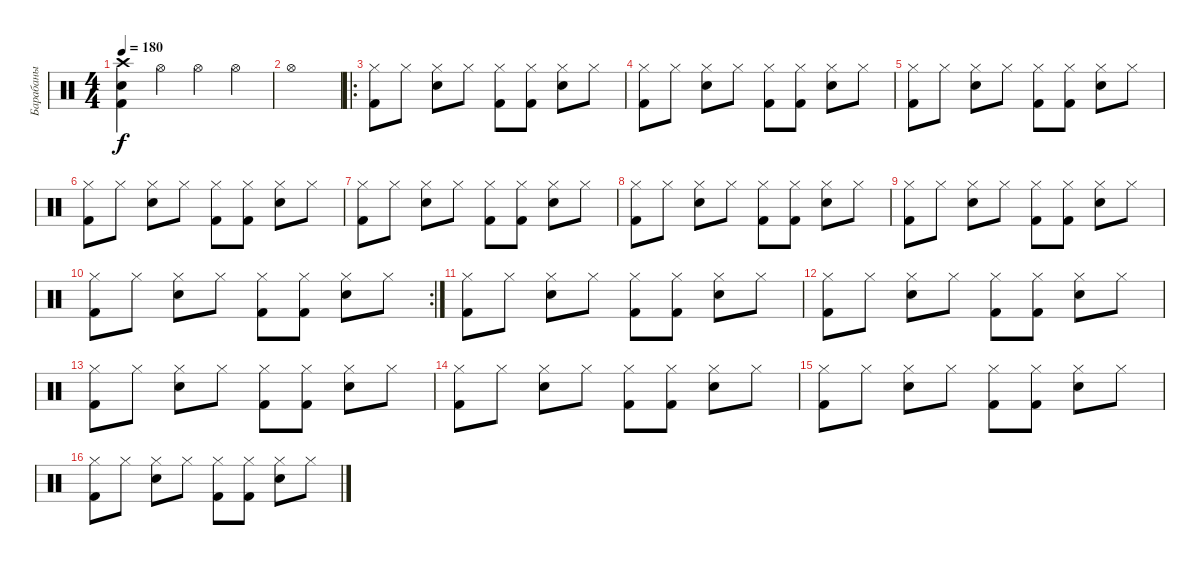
\track ("Барабаны" "Барабаны") {instrument percussion}
\staff {score}
\articulation defaults
\ts (4 4)
\tempo 180
\clef neutral
\ks c
("Crash high (hit)" "Kick (hit) 2" "Electric Snare (hit)").4{dy f} "Hi-Hat (open)".4 "Hi-Hat (open)".4 "Hi-Hat (open)".4 |
"Hi-Hat (open)".1 |
\ro
("Hi-Hat (closed)" "Kick (hit) 2").8 "Hi-Hat (closed)".8 ("Hi-Hat (closed)" "Electric Snare (hit)").8 "Hi-Hat (closed)".8 ("Hi-Hat (closed)" "Kick (hit) 2").8 ("Hi-Hat (closed)" "Kick (hit) 2").8 ("Hi-Hat (closed)" "Electric Snare (hit)").8 "Hi-Hat (closed)".8 |
("Hi-Hat (closed)" "Kick (hit) 2").8 "Hi-Hat (closed)".8 ("Hi-Hat (closed)" "Electric Snare (hit)").8 "Hi-Hat (closed)".8 ("Hi-Hat (closed)" "Kick (hit) 2").8 ("Hi-Hat (closed)" "Kick (hit) 2").8 ("Hi-Hat (closed)" "Electric Snare (hit)").8 "Hi-Hat (closed)".8 |
("Hi-Hat (closed)" "Kick (hit) 2").8 "Hi-Hat (closed)".8 ("Hi-Hat (closed)" "Electric Snare (hit)").8 "Hi-Hat (closed)".8 ("Hi-Hat (closed)" "Kick (hit) 2").8 ("Hi-Hat (closed)" "Kick (hit) 2").8 ("Hi-Hat (closed)" "Electric Snare (hit)").8 "Hi-Hat (closed)".8 |
("Hi-Hat (closed)" "Kick (hit) 2").8 "Hi-Hat (closed)".8 ("Hi-Hat (closed)" "Electric Snare (hit)").8 "Hi-Hat (closed)".8 ("Hi-Hat (closed)" "Kick (hit) 2").8 ("Hi-Hat (closed)" "Kick (hit) 2").8 ("Hi-Hat (closed)" "Electric Snare (hit)").8 "Hi-Hat (closed)".8 |
("Hi-Hat (closed)" "Kick (hit) 2").8 "Hi-Hat (closed)".8 ("Hi-Hat (closed)" "Electric Snare (hit)").8 "Hi-Hat (closed)".8 ("Hi-Hat (closed)" "Kick (hit) 2").8 ("Hi-Hat (closed)" "Kick (hit) 2").8 ("Hi-Hat (closed)" "Electric Snare (hit)").8 "Hi-Hat (closed)".8 |
("Hi-Hat (closed)" "Kick (hit) 2").8 "Hi-Hat (closed)".8 ("Hi-Hat (closed)" "Electric Snare (hit)").8 "Hi-Hat (closed)".8 ("Hi-Hat (closed)" "Kick (hit) 2").8 ("Hi-Hat (closed)" "Kick (hit) 2").8 ("Hi-Hat (closed)" "Electric Snare (hit)").8 "Hi-Hat (closed)".8 |
("Hi-Hat (closed)" "Kick (hit) 2").8 "Hi-Hat (closed)".8 ("Hi-Hat (closed)" "Electric Snare (hit)").8 "Hi-Hat (closed)".8 ("Hi-Hat (closed)" "Kick (hit) 2").8 ("Hi-Hat (closed)" "Kick (hit) 2").8 ("Hi-Hat (closed)" "Electric Snare (hit)").8 "Hi-Hat (closed)".8 |
\rc 2
("Hi-Hat (closed)" "Kick (hit) 2").8 "Hi-Hat (closed)".8 ("Hi-Hat (closed)" "Electric Snare (hit)").8 "Hi-Hat (closed)".8 ("Hi-Hat (closed)" "Kick (hit) 2").8 ("Hi-Hat (closed)" "Kick (hit) 2").8 ("Hi-Hat (closed)" "Electric Snare (hit)").8 "Hi-Hat (closed)".8 |
("Hi-Hat (closed)" "Kick (hit) 2").8 "Hi-Hat (closed)".8 ("Hi-Hat (closed)" "Electric Snare (hit)").8 "Hi-Hat (closed)".8 ("Hi-Hat (closed)" "Kick (hit) 2").8 ("Hi-Hat (closed)" "Kick (hit) 2").8 ("Hi-Hat (closed)" "Electric Snare (hit)").8 "Hi-Hat (closed)".8 |
("Hi-Hat (closed)" "Kick (hit) 2").8 "Hi-Hat (closed)".8 ("Hi-Hat (closed)" "Electric Snare (hit)").8 "Hi-Hat (closed)".8 ("Hi-Hat (closed)" "Kick (hit) 2").8 ("Hi-Hat (closed)" "Kick (hit) 2").8 ("Hi-Hat (closed)" "Electric Snare (hit)").8 "Hi-Hat (closed)".8 |
("Hi-Hat (closed)" "Kick (hit) 2").8 "Hi-Hat (closed)".8 ("Hi-Hat (closed)" "Electric Snare (hit)").8 "Hi-Hat (closed)".8 ("Hi-Hat (closed)" "Kick (hit) 2").8 ("Hi-Hat (closed)" "Kick (hit) 2").8 ("Hi-Hat (closed)" "Electric Snare (hit)").8 "Hi-Hat (closed)".8 |
("Hi-Hat (closed)" "Kick (hit) 2").8 "Hi-Hat (closed)".8 ("Hi-Hat (closed)" "Electric Snare (hit)").8 "Hi-Hat (closed)".8 ("Hi-Hat (closed)" "Kick (hit) 2").8 ("Hi-Hat (closed)" "Kick (hit) 2").8 ("Hi-Hat (closed)" "Electric Snare (hit)").8 "Hi-Hat (closed)".8 |
("Hi-Hat (closed)" "Kick (hit) 2").8 "Hi-Hat (closed)".8 ("Hi-Hat (closed)" "Electric Snare (hit)").8 "Hi-Hat (closed)".8 ("Hi-Hat (closed)" "Kick (hit) 2").8 ("Hi-Hat (closed)" "Kick (hit) 2").8 ("Hi-Hat (closed)" "Electric Snare (hit)").8 "Hi-Hat (closed)".8 |
("Hi-Hat (closed)" "Kick (hit) 2").8 "Hi-Hat (closed)".8 ("Hi-Hat (closed)" "Electric Snare (hit)").8 "Hi-Hat (closed)".8 ("Hi-Hat (closed)" "Kick (hit) 2").8 ("Hi-Hat (closed)" "Kick (hit) 2").8 ("Hi-Hat (closed)" "Electric Snare (hit)").8 "Hi-Hat (closed)".8
